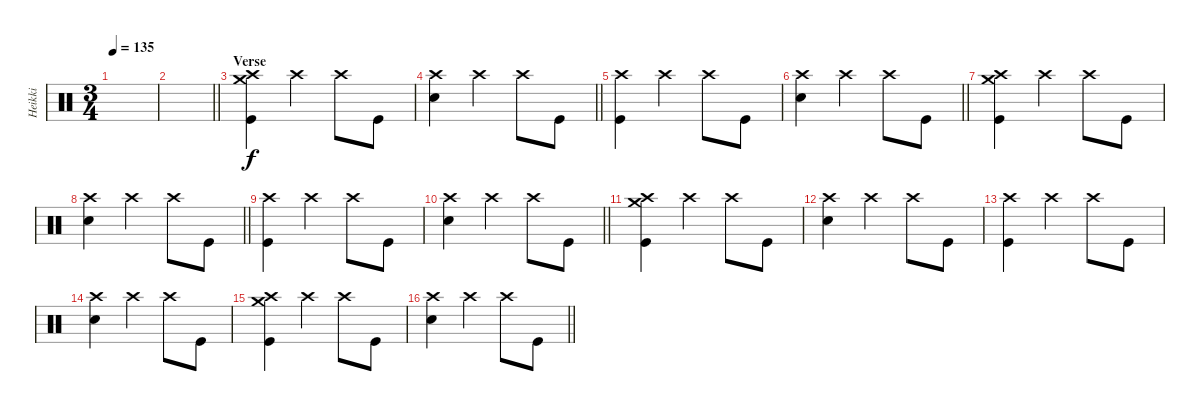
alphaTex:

\track ("Heikki" "Heikki") {instrument percussion}
\staff {score}
\articulation defaults
\ts (3 4)
\tempo 135
\clef neutral
\ks c
|
\barLineRight lightlight
|
\section ("" "Verse")
("Crash high (hit)" "Crash medium (hit)" "Kick (hit)").4 "Crash high (hit)".4 "Crash high (hit)".8 "Kick (hit)".8 |
\barLineRight lightlight
("Crash high (hit)" "Snare (hit) 2").4 "Crash high (hit)".4 "Crash high (hit)".8 "Kick (hit)".8 |
("Crash high (hit)" "Kick (hit)").4 "Crash high (hit)".4 "Crash high (hit)".8 "Kick (hit)".8 |
\barLineRight lightlight
("Crash high (hit)" "Snare (hit) 2").4 "Crash high (hit)".4 "Crash high (hit)".8 "Kick (hit)".8 |
("Crash high (hit)" "Crash medium (hit)" "Kick (hit)").4 "Crash high (hit)".4 "Crash high (hit)".8 "Kick (hit)".8 |
\barLineRight lightlight
("Crash high (hit)" "Snare (hit) 2").4 "Crash high (hit)".4 "Crash high (hit)".8 "Kick (hit)".8 |
("Crash high (hit)" "Kick (hit)").4 "Crash high (hit)".4 "Crash high (hit)".8 "Kick (hit)".8 |
\barLineRight lightlight
("Crash high (hit)" "Snare (hit) 2").4 "Crash high (hit)".4 "Crash high (hit)".8 "Kick (hit)".8 |
("Crash high (hit)" "Crash medium (hit)" "Kick (hit)").4 "Crash high (hit)".4 "Crash high (hit)".8 "Kick (hit)".8 |
("Crash high (hit)" "Snare (hit) 2").4 "Crash high (hit)".4 "Crash high (hit)".8 "Kick (hit)".8 |
("Crash high (hit)" "Kick (hit)").4 "Crash high (hit)".4 "Crash high (hit)".8 "Kick (hit)".8 |
("Crash high (hit)" "Snare (hit) 2").4 "Crash high (hit)".4 "Crash high (hit)".8 "Kick (hit)".8 |
("Crash high (hit)" "Crash medium (hit)" "Kick (hit)").4 "Crash high (hit)".4 "Crash high (hit)".8 "Kick (hit)".8 |
\barLineRight lightlight
("Crash high (hit)" "Snare (hit) 2").4 "Crash high (hit)".4 "Crash high (hit)".8 "Kick (hit)".8
